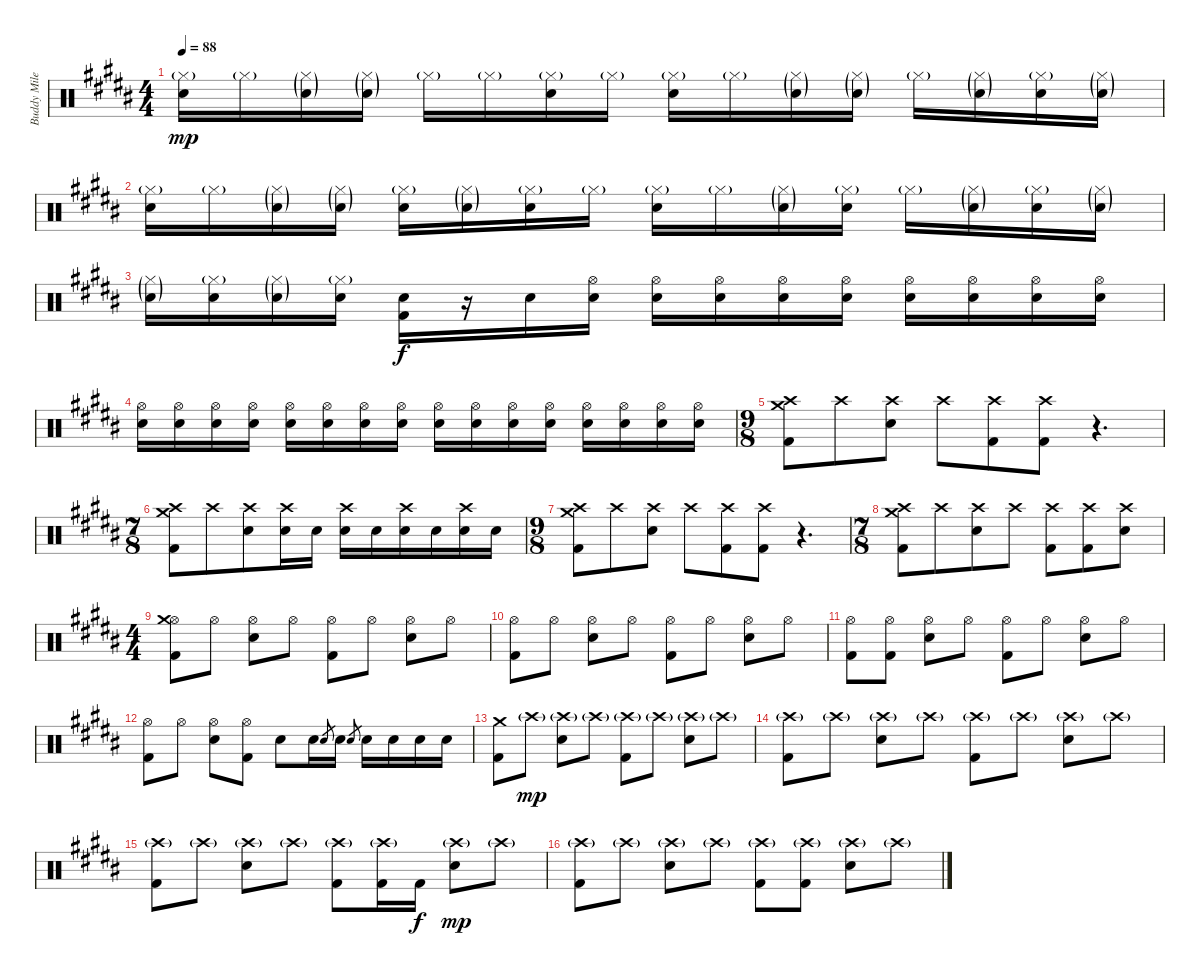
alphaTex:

\track ("Buddy Miles" "Buddy Mile") {instrument percussion}
\staff {score}
\articulation defaults
\ts (4 4)
\tempo 88
\clef neutral
\ks b
("Hi-Hat (closed)"{g} "Electric Snare (hit)").16{dy mp} "Hi-Hat (closed)"{g}.16 ("Hi-Hat (closed)"{g} "Electric Snare (hit)"{g}).16 ("Hi-Hat (closed)"{g} "Electric Snare (hit)"{g}).16 "Hi-Hat (closed)"{g}.16 "Hi-Hat (closed)"{g}.16 ("Hi-Hat (closed)"{g} "Electric Snare (hit)").16 "Hi-Hat (closed)"{g}.16 ("Hi-Hat (closed)"{g} "Electric Snare (hit)").16 "Hi-Hat (closed)"{g}.16 ("Hi-Hat (closed)"{g} "Electric Snare (hit)"{g}).16 ("Hi-Hat (closed)"{g} "Electric Snare (hit)"{g}).16 "Hi-Hat (closed)"{g}.16 ("Hi-Hat (closed)"{g} "Electric Snare (hit)"{g}).16 ("Hi-Hat (closed)"{g} "Electric Snare (hit)").16 ("Hi-Hat (closed)"{g} "Electric Snare (hit)"{g}).16 |
("Hi-Hat (closed)"{g} "Electric Snare (hit)").16 "Hi-Hat (closed)"{g}.16 ("Hi-Hat (closed)"{g} "Electric Snare (hit)"{g}).16 ("Hi-Hat (closed)"{g} "Electric Snare (hit)"{g}).16 ("Hi-Hat (closed)"{g} "Electric Snare (hit)").16 ("Hi-Hat (closed)"{g} "Electric Snare (hit)"{g}).16 ("Hi-Hat (closed)"{g} "Electric Snare (hit)").16 "Hi-Hat (closed)"{g}.16 ("Hi-Hat (closed)"{g} "Electric Snare (hit)").16 "Hi-Hat (closed)"{g}.16 ("Hi-Hat (closed)"{g} "Electric Snare (hit)"{g}).16 ("Hi-Hat (closed)"{g} "Electric Snare (hit)").16 "Hi-Hat (closed)"{g}.16 ("Hi-Hat (closed)"{g} "Electric Snare (hit)"{g}).16 ("Hi-Hat (closed)"{g} "Electric Snare (hit)").16 ("Hi-Hat (closed)"{g} "Electric Snare (hit)"{g}).16 |
("Hi-Hat (closed)"{g} "Electric Snare (hit)"{g}).16 ("Hi-Hat (closed)"{g} "Electric Snare (hit)").16 ("Hi-Hat (closed)"{g} "Electric Snare (hit)"{g}).16 ("Hi-Hat (closed)"{g} "Electric Snare (hit)").16 ("Kick (hit) 2" "Electric Snare (hit)").16{dy f} r.16 "Electric Snare (hit)".16 ("Hi-Hat (open)" "Electric Snare (hit)").16 ("Hi-Hat (open)" "Electric Snare (hit)").16 ("Hi-Hat (open)" "Electric Snare (hit)").16 ("Hi-Hat (open)" "Electric Snare (hit)").16 ("Hi-Hat (open)" "Electric Snare (hit)").16 ("Hi-Hat (open)" "Electric Snare (hit)").16 ("Hi-Hat (open)" "Electric Snare (hit)").16 ("Hi-Hat (open)" "Electric Snare (hit)").16 ("Hi-Hat (open)" "Electric Snare (hit)").16 |
("Hi-Hat (open)" "Electric Snare (hit)").16 ("Hi-Hat (open)" "Electric Snare (hit)").16 ("Hi-Hat (open)" "Electric Snare (hit)").16 ("Hi-Hat (open)" "Electric Snare (hit)").16 ("Hi-Hat (open)" "Electric Snare (hit)").16 ("Hi-Hat (open)" "Electric Snare (hit)").16 ("Hi-Hat (open)" "Electric Snare (hit)").16 ("Hi-Hat (open)" "Electric Snare (hit)").16 ("Hi-Hat (open)" "Electric Snare (hit)").16 ("Hi-Hat (open)" "Electric Snare (hit)").16 ("Hi-Hat (open)" "Electric Snare (hit)").16 ("Hi-Hat (open)" "Electric Snare (hit)").16 ("Hi-Hat (open)" "Electric Snare (hit)").16 ("Hi-Hat (open)" "Electric Snare (hit)").16 ("Hi-Hat (open)" "Electric Snare (hit)").16 ("Hi-Hat (open)" "Electric Snare (hit)").16 |
\ts (9 8)
("Crash high (hit)" "Kick (hit) 2" "Crash medium (hit)").8 "Crash high (hit)".8 ("Crash high (hit)" "Electric Snare (hit)").8 "Crash high (hit)".8 ("Crash high (hit)" "Kick (hit) 2").8 ("Crash high (hit)" "Kick (hit) 2").8 r.4{d} |
\ts (7 8)
("Crash high (hit)" "Kick (hit) 2" "Crash medium (hit)").8 "Crash high (hit)".8 ("Crash high (hit)" "Electric Snare (hit)").8 ("Crash high (hit)" "Electric Snare (hit)").16 "Electric Snare (hit)".16 ("Crash high (hit)" "Electric Snare (hit)").16 "Electric Snare (hit)".16 ("Crash high (hit)" "Electric Snare (hit)").16 "Electric Snare (hit)".16 ("Crash high (hit)" "Electric Snare (hit)").16 "Electric Snare (hit)".16 |
\ts (9 8)
("Crash high (hit)" "Kick (hit) 2" "Crash medium (hit)").8 "Crash high (hit)".8 ("Crash high (hit)" "Electric Snare (hit)").8 "Crash high (hit)".8 ("Crash high (hit)" "Kick (hit) 2").8 ("Crash high (hit)" "Kick (hit) 2").8 r.4{d} |
\ts (7 8)
("Crash high (hit)" "Kick (hit) 2" "Crash medium (hit)").8 "Crash high (hit)".8 ("Crash high (hit)" "Electric Snare (hit)").8 "Crash high (hit)".8 ("Crash high (hit)" "Kick (hit) 2").8 ("Crash high (hit)" "Kick (hit) 2").8 ("Crash high (hit)" "Electric Snare (hit)").8 |
\ts (4 4)
("Hi-Hat (open)" "Kick (hit) 2" "Crash medium (hit)").8 "Hi-Hat (open)".8 ("Hi-Hat (open)" "Electric Snare (hit)").8 "Hi-Hat (open)".8 ("Hi-Hat (open)" "Kick (hit) 2").8 "Hi-Hat (open)".8 ("Hi-Hat (open)" "Electric Snare (hit)").8 "Hi-Hat (open)".8 |
("Hi-Hat (open)" "Kick (hit) 2").8 "Hi-Hat (open)".8 ("Hi-Hat (open)" "Electric Snare (hit)").8 "Hi-Hat (open)".8 ("Hi-Hat (open)" "Kick (hit) 2").8 "Hi-Hat (open)".8 ("Hi-Hat (open)" "Electric Snare (hit)").8 "Hi-Hat (open)".8 |
("Hi-Hat (open)" "Kick (hit) 2").8 ("Hi-Hat (open)" "Kick (hit) 2").8 ("Hi-Hat (open)" "Electric Snare (hit)").8 "Hi-Hat (open)".8 ("Hi-Hat (open)" "Kick (hit) 2").8 "Hi-Hat (open)".8 ("Hi-Hat (open)" "Electric Snare (hit)").8 "Hi-Hat (open)".8 |
("Hi-Hat (open)" "Kick (hit) 2").8 "Hi-Hat (open)".8 ("Hi-Hat (open)" "Electric Snare (hit)").8 ("Hi-Hat (open)" "Kick (hit) 2").8 "Electric Snare (hit)".8 "Electric Snare (hit)".16 "Electric Snare (hit)".8{gr} "Electric Snare (hit)".16 "Electric Snare (hit)".8{gr} "Electric Snare (hit)".16 "Electric Snare (hit)".16 "Electric Snare (hit)".16 "Electric Snare (hit)".16 |
("Kick (hit) 2" "Crash medium (hit)").8 "Crash high (hit)"{g}.8{dy mp} ("Crash high (hit)"{g} "Electric Snare (hit)").8 "Crash high (hit)"{g}.8 ("Crash high (hit)"{g} "Kick (hit) 2").8 "Crash high (hit)"{g}.8 ("Crash high (hit)"{g} "Electric Snare (hit)").8 "Crash high (hit)"{g}.8 |
("Crash high (hit)"{g} "Kick (hit) 2").8 "Crash high (hit)"{g}.8 ("Crash high (hit)"{g} "Electric Snare (hit)").8 "Crash high (hit)"{g}.8 ("Crash high (hit)"{g} "Kick (hit) 2").8 "Crash high (hit)"{g}.8 ("Crash high (hit)"{g} "Electric Snare (hit)").8 "Crash high (hit)"{g}.8 |
("Crash high (hit)"{g} "Kick (hit) 2").8 "Crash high (hit)"{g}.8 ("Crash high (hit)"{g} "Electric Snare (hit)").8 "Crash high (hit)"{g}.8 ("Crash high (hit)"{g} "Kick (hit) 2").8 ("Crash high (hit)"{g} "Kick (hit) 2").16 "Kick (hit) 2".16{dy f} ("Crash high (hit)"{g} "Electric Snare (hit)").8{dy mp} "Crash high (hit)"{g}.8 |
("Crash high (hit)"{g} "Kick (hit) 2").8 "Crash high (hit)"{g}.8 ("Crash high (hit)"{g} "Electric Snare (hit)").8 "Crash high (hit)"{g}.8 ("Crash high (hit)"{g} "Kick (hit) 2").8 ("Crash high (hit)"{g} "Kick (hit) 2").8 ("Crash high (hit)"{g} "Electric Snare (hit)").8 "Crash high (hit)"{g}.8
